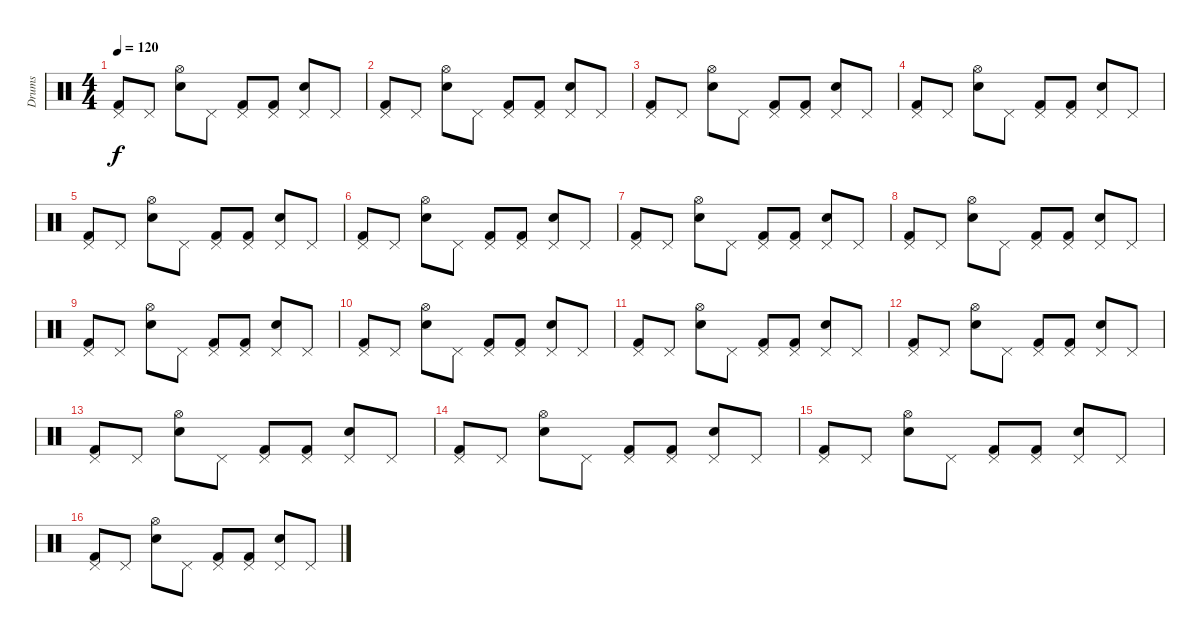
\track ("Drums" "Drums") {instrument percussion}
\staff {score}
\articulation defaults
\ts (4 4)
\tempo 120
\clef neutral
\ks c
("Pedal Hi-Hat (hit)" "Kick (hit) 2").8{dy f} "Pedal Hi-Hat (hit)".8 ("Hi-Hat (open)" "Snare (hit) 2").8 "Pedal Hi-Hat (hit)".8 ("Pedal Hi-Hat (hit)" "Kick (hit) 2").8 ("Pedal Hi-Hat (hit)" "Kick (hit) 2").8 ("Pedal Hi-Hat (hit)" "Snare (hit) 2").8 "Pedal Hi-Hat (hit)".8 |
("Pedal Hi-Hat (hit)" "Kick (hit) 2").8 "Pedal Hi-Hat (hit)".8 ("Hi-Hat (open)" "Snare (hit) 2").8 "Pedal Hi-Hat (hit)".8 ("Pedal Hi-Hat (hit)" "Kick (hit) 2").8 ("Pedal Hi-Hat (hit)" "Kick (hit) 2").8 ("Pedal Hi-Hat (hit)" "Snare (hit) 2").8 "Pedal Hi-Hat (hit)".8 |
("Pedal Hi-Hat (hit)" "Kick (hit) 2").8 "Pedal Hi-Hat (hit)".8 ("Hi-Hat (open)" "Snare (hit) 2").8 "Pedal Hi-Hat (hit)".8 ("Pedal Hi-Hat (hit)" "Kick (hit) 2").8 ("Pedal Hi-Hat (hit)" "Kick (hit) 2").8 ("Pedal Hi-Hat (hit)" "Snare (hit) 2").8 "Pedal Hi-Hat (hit)".8 |
("Pedal Hi-Hat (hit)" "Kick (hit) 2").8 "Pedal Hi-Hat (hit)".8 ("Hi-Hat (open)" "Snare (hit) 2").8 "Pedal Hi-Hat (hit)".8 ("Pedal Hi-Hat (hit)" "Kick (hit) 2").8 ("Pedal Hi-Hat (hit)" "Kick (hit) 2").8 ("Pedal Hi-Hat (hit)" "Snare (hit) 2").8 "Pedal Hi-Hat (hit)".8 |
("Pedal Hi-Hat (hit)" "Kick (hit) 2").8 "Pedal Hi-Hat (hit)".8 ("Hi-Hat (open)" "Snare (hit) 2").8 "Pedal Hi-Hat (hit)".8 ("Pedal Hi-Hat (hit)" "Kick (hit) 2").8 ("Pedal Hi-Hat (hit)" "Kick (hit) 2").8 ("Pedal Hi-Hat (hit)" "Snare (hit) 2").8 "Pedal Hi-Hat (hit)".8 |
("Pedal Hi-Hat (hit)" "Kick (hit) 2").8 "Pedal Hi-Hat (hit)".8 ("Hi-Hat (open)" "Snare (hit) 2").8 "Pedal Hi-Hat (hit)".8 ("Pedal Hi-Hat (hit)" "Kick (hit) 2").8 ("Pedal Hi-Hat (hit)" "Kick (hit) 2").8 ("Pedal Hi-Hat (hit)" "Snare (hit) 2").8 "Pedal Hi-Hat (hit)".8 |
("Pedal Hi-Hat (hit)" "Kick (hit) 2").8 "Pedal Hi-Hat (hit)".8 ("Hi-Hat (open)" "Snare (hit) 2").8 "Pedal Hi-Hat (hit)".8 ("Pedal Hi-Hat (hit)" "Kick (hit) 2").8 ("Pedal Hi-Hat (hit)" "Kick (hit) 2").8 ("Pedal Hi-Hat (hit)" "Snare (hit) 2").8 "Pedal Hi-Hat (hit)".8 |
("Pedal Hi-Hat (hit)" "Kick (hit) 2").8 "Pedal Hi-Hat (hit)".8 ("Hi-Hat (open)" "Snare (hit) 2").8 "Pedal Hi-Hat (hit)".8 ("Pedal Hi-Hat (hit)" "Kick (hit) 2").8 ("Pedal Hi-Hat (hit)" "Kick (hit) 2").8 ("Pedal Hi-Hat (hit)" "Snare (hit) 2").8 "Pedal Hi-Hat (hit)".8 |
("Pedal Hi-Hat (hit)" "Kick (hit) 2").8 "Pedal Hi-Hat (hit)".8 ("Hi-Hat (open)" "Snare (hit) 2").8 "Pedal Hi-Hat (hit)".8 ("Pedal Hi-Hat (hit)" "Kick (hit) 2").8 ("Pedal Hi-Hat (hit)" "Kick (hit) 2").8 ("Pedal Hi-Hat (hit)" "Snare (hit) 2").8 "Pedal Hi-Hat (hit)".8 |
("Pedal Hi-Hat (hit)" "Kick (hit) 2").8 "Pedal Hi-Hat (hit)".8 ("Hi-Hat (open)" "Snare (hit) 2").8 "Pedal Hi-Hat (hit)".8 ("Pedal Hi-Hat (hit)" "Kick (hit) 2").8 ("Pedal Hi-Hat (hit)" "Kick (hit) 2").8 ("Pedal Hi-Hat (hit)" "Snare (hit) 2").8 "Pedal Hi-Hat (hit)".8 |
("Pedal Hi-Hat (hit)" "Kick (hit) 2").8 "Pedal Hi-Hat (hit)".8 ("Hi-Hat (open)" "Snare (hit) 2").8 "Pedal Hi-Hat (hit)".8 ("Pedal Hi-Hat (hit)" "Kick (hit) 2").8 ("Pedal Hi-Hat (hit)" "Kick (hit) 2").8 ("Pedal Hi-Hat (hit)" "Snare (hit) 2").8 "Pedal Hi-Hat (hit)".8 |
("Pedal Hi-Hat (hit)" "Kick (hit) 2").8 "Pedal Hi-Hat (hit)".8 ("Hi-Hat (open)" "Snare (hit) 2").8 "Pedal Hi-Hat (hit)".8 ("Pedal Hi-Hat (hit)" "Kick (hit) 2").8 ("Pedal Hi-Hat (hit)" "Kick (hit) 2").8 ("Pedal Hi-Hat (hit)" "Snare (hit) 2").8 "Pedal Hi-Hat (hit)".8 |
("Pedal Hi-Hat (hit)" "Kick (hit) 2").8 "Pedal Hi-Hat (hit)".8 ("Hi-Hat (open)" "Snare (hit) 2").8 "Pedal Hi-Hat (hit)".8 ("Pedal Hi-Hat (hit)" "Kick (hit) 2").8 ("Pedal Hi-Hat (hit)" "Kick (hit) 2").8 ("Pedal Hi-Hat (hit)" "Snare (hit) 2").8 "Pedal Hi-Hat (hit)".8 |
("Pedal Hi-Hat (hit)" "Kick (hit) 2").8 "Pedal Hi-Hat (hit)".8 ("Hi-Hat (open)" "Snare (hit) 2").8 "Pedal Hi-Hat (hit)".8 ("Pedal Hi-Hat (hit)" "Kick (hit) 2").8 ("Pedal Hi-Hat (hit)" "Kick (hit) 2").8 ("Pedal Hi-Hat (hit)" "Snare (hit) 2").8 "Pedal Hi-Hat (hit)".8 |
("Pedal Hi-Hat (hit)" "Kick (hit) 2").8 "Pedal Hi-Hat (hit)".8 ("Hi-Hat (open)" "Snare (hit) 2").8 "Pedal Hi-Hat (hit)".8 ("Pedal Hi-Hat (hit)" "Kick (hit) 2").8 ("Pedal Hi-Hat (hit)" "Kick (hit) 2").8 ("Pedal Hi-Hat (hit)" "Snare (hit) 2").8 "Pedal Hi-Hat (hit)".8 |
("Pedal Hi-Hat (hit)" "Kick (hit) 2").8 "Pedal Hi-Hat (hit)".8 ("Hi-Hat (open)" "Snare (hit) 2").8 "Pedal Hi-Hat (hit)".8 ("Pedal Hi-Hat (hit)" "Kick (hit) 2").8 ("Pedal Hi-Hat (hit)" "Kick (hit) 2").8 ("Pedal Hi-Hat (hit)" "Snare (hit) 2").8 "Pedal Hi-Hat (hit)".8
